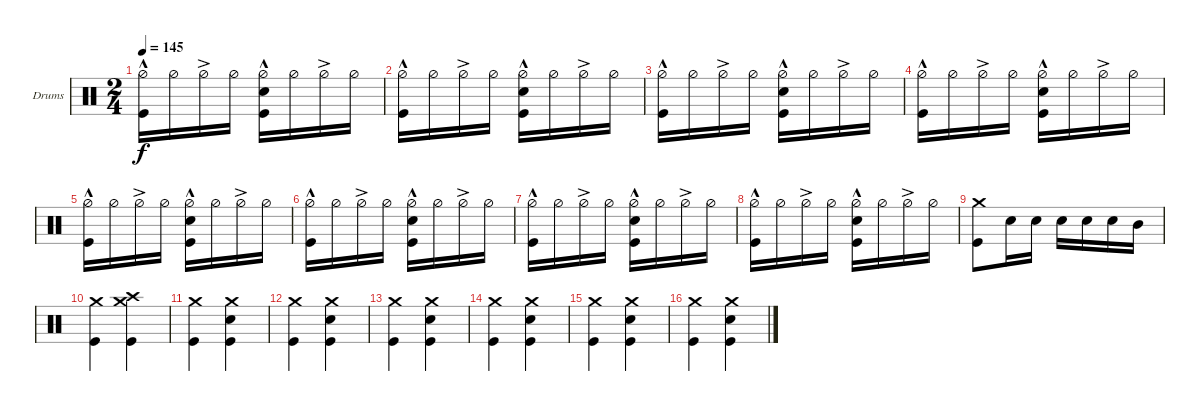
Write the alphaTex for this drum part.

\bracketExtendMode groupsimilarinstruments
\firstSystemTrackNameOrientation horizontal
\otherSystemsTrackNameOrientation horizontal
\track ("Drumkit" "Drums") {instrument percussion}
\staff {score}
\articulation defaults
\ts (2 4)
\tempo 145
\clef neutral
\ks c
("Hi-Hat (half)"{hac} "Kick (hit)").16{dy f} "Hi-Hat (half)".16 "Hi-Hat (half)"{ac}.16 "Hi-Hat (half)".16 ("Hi-Hat (half)"{hac} "Snare (hit) 2" "Kick (hit)").16 "Hi-Hat (half)".16 "Hi-Hat (half)"{ac}.16 "Hi-Hat (half)".16 |
("Hi-Hat (half)"{hac} "Kick (hit)").16 "Hi-Hat (half)".16 "Hi-Hat (half)"{ac}.16 "Hi-Hat (half)".16 ("Hi-Hat (half)"{hac} "Snare (hit) 2" "Kick (hit)").16 "Hi-Hat (half)".16 "Hi-Hat (half)"{ac}.16 "Hi-Hat (half)".16 |
("Hi-Hat (half)"{hac} "Kick (hit)").16 "Hi-Hat (half)".16 "Hi-Hat (half)"{ac}.16 "Hi-Hat (half)".16 ("Hi-Hat (half)"{hac} "Snare (hit) 2" "Kick (hit)").16 "Hi-Hat (half)".16 "Hi-Hat (half)"{ac}.16 "Hi-Hat (half)".16 |
("Hi-Hat (half)"{hac} "Kick (hit)").16 "Hi-Hat (half)".16 "Hi-Hat (half)"{ac}.16 "Hi-Hat (half)".16 ("Hi-Hat (half)"{hac} "Snare (hit) 2" "Kick (hit)").16 "Hi-Hat (half)".16 "Hi-Hat (half)"{ac}.16 "Hi-Hat (half)".16 |
("Hi-Hat (half)"{hac} "Kick (hit)").16 "Hi-Hat (half)".16 "Hi-Hat (half)"{ac}.16 "Hi-Hat (half)".16 ("Hi-Hat (half)"{hac} "Snare (hit) 2" "Kick (hit)").16 "Hi-Hat (half)".16 "Hi-Hat (half)"{ac}.16 "Hi-Hat (half)".16 |
("Hi-Hat (half)"{hac} "Kick (hit)").16 "Hi-Hat (half)".16 "Hi-Hat (half)"{ac}.16 "Hi-Hat (half)".16 ("Hi-Hat (half)"{hac} "Snare (hit) 2" "Kick (hit)").16 "Hi-Hat (half)".16 "Hi-Hat (half)"{ac}.16 "Hi-Hat (half)".16 |
("Hi-Hat (half)"{hac} "Kick (hit)").16 "Hi-Hat (half)".16 "Hi-Hat (half)"{ac}.16 "Hi-Hat (half)".16 ("Hi-Hat (half)"{hac} "Snare (hit) 2" "Kick (hit)").16 "Hi-Hat (half)".16 "Hi-Hat (half)"{ac}.16 "Hi-Hat (half)".16 |
("Hi-Hat (half)"{hac} "Kick (hit)").16 "Hi-Hat (half)".16 "Hi-Hat (half)"{ac}.16 "Hi-Hat (half)".16 ("Hi-Hat (half)"{hac} "Snare (hit) 2" "Kick (hit)").16 "Hi-Hat (half)".16 "Hi-Hat (half)"{ac}.16 "Hi-Hat (half)".16 |
("Kick (hit)" "Crash medium (hit)").8 "Snare (hit) 2".16 "Snare (hit) 2".16 "Snare (hit) 2".16 "Snare (hit) 2".16 "Snare (hit) 2".16 "Mid Tom (hit)".16 |
("Kick (hit)" "Crash medium (hit)").4 ("Crash high (hit)" "Kick (hit)" "Crash medium (hit)").4 |
("Kick (hit)" "Crash medium (hit)").4 ("Crash medium (hit)" "Kick (hit)" "Snare (hit) 2").4 |
("Kick (hit)" "Crash medium (hit)").4 ("Crash medium (hit)" "Kick (hit)" "Snare (hit) 2").4 |
("Kick (hit)" "Crash medium (hit)").4 ("Crash medium (hit)" "Kick (hit)" "Snare (hit) 2").4 |
("Kick (hit)" "Crash medium (hit)").4 ("Crash medium (hit)" "Kick (hit)" "Snare (hit) 2").4 |
("Kick (hit)" "Crash medium (hit)").4 ("Crash medium (hit)" "Kick (hit)" "Snare (hit) 2").4 |
("Kick (hit)" "Crash medium (hit)").4 ("Crash medium (hit)" "Kick (hit)" "Snare (hit) 2").4
